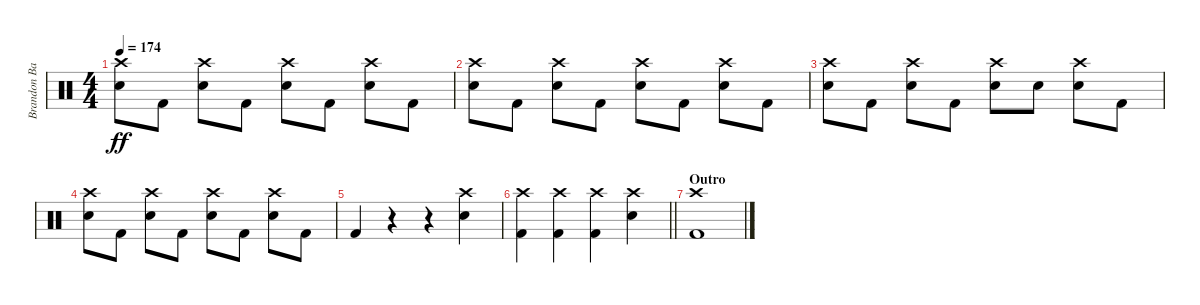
\track ("Brandon Barnes - Drums" "Brandon Ba") {instrument percussion}
\staff {score}
\articulation defaults
\ts (4 4)
\tempo 174
\clef neutral
\ks c
("Snare (hit) 2" "Crash high (hit)").8{dy ff} "Kick (hit) 2".8 ("Snare (hit) 2" "Crash high (hit)").8 "Kick (hit) 2".8 ("Snare (hit) 2" "Crash high (hit)").8 "Kick (hit) 2".8 ("Snare (hit) 2" "Crash high (hit)").8 "Kick (hit) 2".8 |
("Snare (hit) 2" "Crash high (hit)").8 "Kick (hit) 2".8 ("Snare (hit) 2" "Crash high (hit)").8 "Kick (hit) 2".8 ("Snare (hit) 2" "Crash high (hit)").8 "Kick (hit) 2".8 ("Snare (hit) 2" "Crash high (hit)").8 "Kick (hit) 2".8 |
("Snare (hit) 2" "Crash high (hit)").8 "Kick (hit) 2".8 ("Snare (hit) 2" "Crash high (hit)").8 "Kick (hit) 2".8 ("Snare (hit) 2" "Crash high (hit)").8 "Snare (hit) 2".8 ("Snare (hit) 2" "Crash high (hit)").8 "Kick (hit) 2".8 |
("Snare (hit) 2" "Crash high (hit)").8 "Kick (hit) 2".8 ("Snare (hit) 2" "Crash high (hit)").8 "Kick (hit) 2".8 ("Snare (hit) 2" "Crash high (hit)").8 "Kick (hit) 2".8 ("Snare (hit) 2" "Crash high (hit)").8 "Kick (hit) 2".8 |
"Kick (hit) 2".4 r.4 r.4 ("Crash high (hit)" "Snare (hit) 2").4 |
\barLineRight lightlight
("Crash high (hit)" "Kick (hit) 2").4 ("Crash high (hit)" "Kick (hit) 2").4 ("Crash high (hit)" "Kick (hit) 2").4 ("Crash high (hit)" "Snare (hit) 2").4 |
\section ("" "Outro")
("Crash high (hit)" "Kick (hit) 2").1{volume 0}
